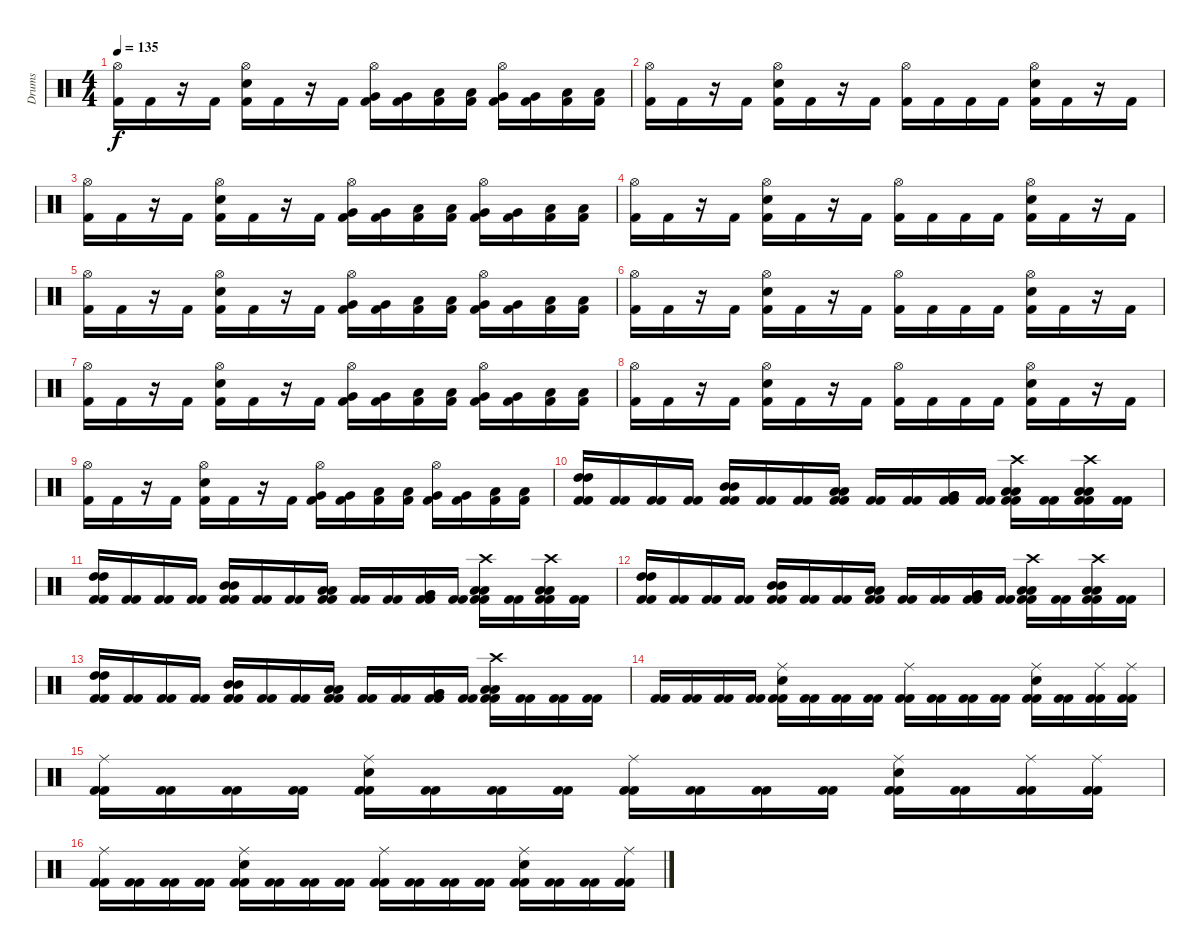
\track ("Drums" "Drums") {instrument percussion}
\staff {score}
\articulation defaults
\ts (4 4)
\tempo 135
\clef neutral
\ks c
("Hi-Hat (open)" "Kick (hit) 2").16{dy f} "Kick (hit) 2".16 r.16 "Kick (hit) 2".16 ("Hi-Hat (open)" "Electric Snare (hit)" "Kick (hit) 2").16 "Kick (hit) 2".16 r.16 "Kick (hit) 2".16 ("Hi-Hat (open)" "Very Low Tom (hit)" "Kick (hit) 2").16 ("Very Low Tom (hit)" "Kick (hit) 2").16 ("Low Floor Tom (hit)" "Kick (hit) 2").16 ("Low Floor Tom (hit)" "Kick (hit) 2").16 ("Hi-Hat (open)" "Very Low Tom (hit)" "Kick (hit) 2").16 ("Very Low Tom (hit)" "Kick (hit) 2").16 ("Low Floor Tom (hit)" "Kick (hit) 2").16 ("Low Floor Tom (hit)" "Kick (hit) 2").16 |
("Hi-Hat (open)" "Kick (hit) 2").16 "Kick (hit) 2".16 r.16 "Kick (hit) 2".16 ("Hi-Hat (open)" "Electric Snare (hit)" "Kick (hit) 2").16 "Kick (hit) 2".16 r.16 "Kick (hit) 2".16 ("Hi-Hat (open)" "Kick (hit) 2").16 "Kick (hit) 2".16 "Kick (hit) 2".16 "Kick (hit) 2".16 ("Hi-Hat (open)" "Electric Snare (hit)" "Kick (hit) 2").16 "Kick (hit) 2".16 r.16 "Kick (hit) 2".16 |
("Hi-Hat (open)" "Kick (hit) 2").16 "Kick (hit) 2".16 r.16 "Kick (hit) 2".16 ("Hi-Hat (open)" "Electric Snare (hit)" "Kick (hit) 2").16 "Kick (hit) 2".16 r.16 "Kick (hit) 2".16 ("Hi-Hat (open)" "Very Low Tom (hit)" "Kick (hit) 2").16 ("Very Low Tom (hit)" "Kick (hit) 2").16 ("Low Floor Tom (hit)" "Kick (hit) 2").16 ("Low Floor Tom (hit)" "Kick (hit) 2").16 ("Hi-Hat (open)" "Very Low Tom (hit)" "Kick (hit) 2").16 ("Very Low Tom (hit)" "Kick (hit) 2").16 ("Low Floor Tom (hit)" "Kick (hit) 2").16 ("Low Floor Tom (hit)" "Kick (hit) 2").16 |
("Hi-Hat (open)" "Kick (hit) 2").16 "Kick (hit) 2".16 r.16 "Kick (hit) 2".16 ("Hi-Hat (open)" "Electric Snare (hit)" "Kick (hit) 2").16 "Kick (hit) 2".16 r.16 "Kick (hit) 2".16 ("Hi-Hat (open)" "Kick (hit) 2").16 "Kick (hit) 2".16 "Kick (hit) 2".16 "Kick (hit) 2".16 ("Hi-Hat (open)" "Electric Snare (hit)" "Kick (hit) 2").16 "Kick (hit) 2".16 r.16 "Kick (hit) 2".16 |
("Hi-Hat (open)" "Kick (hit) 2").16 "Kick (hit) 2".16 r.16 "Kick (hit) 2".16 ("Hi-Hat (open)" "Electric Snare (hit)" "Kick (hit) 2").16 "Kick (hit) 2".16 r.16 "Kick (hit) 2".16 ("Hi-Hat (open)" "Very Low Tom (hit)" "Kick (hit) 2").16 ("Very Low Tom (hit)" "Kick (hit) 2").16 ("Low Floor Tom (hit)" "Kick (hit) 2").16 ("Low Floor Tom (hit)" "Kick (hit) 2").16 ("Hi-Hat (open)" "Very Low Tom (hit)" "Kick (hit) 2").16 ("Very Low Tom (hit)" "Kick (hit) 2").16 ("Low Floor Tom (hit)" "Kick (hit) 2").16 ("Low Floor Tom (hit)" "Kick (hit) 2").16 |
("Hi-Hat (open)" "Kick (hit) 2").16 "Kick (hit) 2".16 r.16 "Kick (hit) 2".16 ("Hi-Hat (open)" "Electric Snare (hit)" "Kick (hit) 2").16 "Kick (hit) 2".16 r.16 "Kick (hit) 2".16 ("Hi-Hat (open)" "Kick (hit) 2").16 "Kick (hit) 2".16 "Kick (hit) 2".16 "Kick (hit) 2".16 ("Hi-Hat (open)" "Electric Snare (hit)" "Kick (hit) 2").16 "Kick (hit) 2".16 r.16 "Kick (hit) 2".16 |
("Hi-Hat (open)" "Kick (hit) 2").16 "Kick (hit) 2".16 r.16 "Kick (hit) 2".16 ("Hi-Hat (open)" "Electric Snare (hit)" "Kick (hit) 2").16 "Kick (hit) 2".16 r.16 "Kick (hit) 2".16 ("Hi-Hat (open)" "Very Low Tom (hit)" "Kick (hit) 2").16 ("Very Low Tom (hit)" "Kick (hit) 2").16 ("Low Floor Tom (hit)" "Kick (hit) 2").16 ("Low Floor Tom (hit)" "Kick (hit) 2").16 ("Hi-Hat (open)" "Very Low Tom (hit)" "Kick (hit) 2").16 ("Very Low Tom (hit)" "Kick (hit) 2").16 ("Low Floor Tom (hit)" "Kick (hit) 2").16 ("Low Floor Tom (hit)" "Kick (hit) 2").16 |
("Hi-Hat (open)" "Kick (hit) 2").16 "Kick (hit) 2".16 r.16 "Kick (hit) 2".16 ("Hi-Hat (open)" "Electric Snare (hit)" "Kick (hit) 2").16 "Kick (hit) 2".16 r.16 "Kick (hit) 2".16 ("Hi-Hat (open)" "Kick (hit) 2").16 "Kick (hit) 2".16 "Kick (hit) 2".16 "Kick (hit) 2".16 ("Hi-Hat (open)" "Electric Snare (hit)" "Kick (hit) 2").16 "Kick (hit) 2".16 r.16 "Kick (hit) 2".16 |
("Hi-Hat (open)" "Kick (hit) 2").16 "Kick (hit) 2".16 r.16 "Kick (hit) 2".16 ("Hi-Hat (open)" "Electric Snare (hit)" "Kick (hit) 2").16 "Kick (hit) 2".16 r.16 "Kick (hit) 2".16 ("Hi-Hat (open)" "Very Low Tom (hit)" "Kick (hit) 2").16 ("Very Low Tom (hit)" "Kick (hit) 2").16 ("Low Floor Tom (hit)" "Kick (hit) 2").16 ("Low Floor Tom (hit)" "Kick (hit) 2").16 ("Hi-Hat (open)" "Very Low Tom (hit)" "Kick (hit) 2").16 ("Very Low Tom (hit)" "Kick (hit) 2").16 ("Low Floor Tom (hit)" "Kick (hit) 2").16 ("Low Floor Tom (hit)" "Kick (hit) 2").16 |
("High Tom (hit)" "High Tom (hit)" "Kick (hit) 2" "Kick (hit) 2").16 ("Kick (hit) 2" "Kick (hit) 2").16 ("Kick (hit) 2" "Kick (hit) 2").16 ("Kick (hit) 2" "Kick (hit) 2").16 ("Mid Tom (hit)" "Mid Tom (hit)" "Kick (hit) 2" "Kick (hit) 2").16 ("Kick (hit) 2" "Kick (hit) 2").16 ("Kick (hit) 2" "Kick (hit) 2").16 ("Low Tom (hit)" "Low Tom (hit)" "Kick (hit) 2" "Kick (hit) 2").16 ("Kick (hit) 2" "Kick (hit) 2").16 ("Kick (hit) 2" "Kick (hit) 2").16 ("Very Low Tom (hit)" "Very Low Tom (hit)" "Kick (hit) 2" "Kick (hit) 2").16 ("Kick (hit) 2" "Kick (hit) 2").16 ("Crash high (hit)" "Low Floor Tom (hit)" "Low Floor Tom (hit)" "Kick (hit) 2" "Kick (hit) 2").16 ("Kick (hit) 2" "Kick (hit) 2").16 ("Crash high (hit)" "Low Floor Tom (hit)" "Low Floor Tom (hit)" "Kick (hit) 2" "Kick (hit) 2").16 ("Kick (hit) 2" "Kick (hit) 2").16 |
("High Tom (hit)" "High Tom (hit)" "Kick (hit) 2" "Kick (hit) 2").16 ("Kick (hit) 2" "Kick (hit) 2").16 ("Kick (hit) 2" "Kick (hit) 2").16 ("Kick (hit) 2" "Kick (hit) 2").16 ("Mid Tom (hit)" "Mid Tom (hit)" "Kick (hit) 2" "Kick (hit) 2").16 ("Kick (hit) 2" "Kick (hit) 2").16 ("Kick (hit) 2" "Kick (hit) 2").16 ("Low Tom (hit)" "Low Tom (hit)" "Kick (hit) 2" "Kick (hit) 2").16 ("Kick (hit) 2" "Kick (hit) 2").16 ("Kick (hit) 2" "Kick (hit) 2").16 ("Very Low Tom (hit)" "Very Low Tom (hit)" "Kick (hit) 2" "Kick (hit) 2").16 ("Kick (hit) 2" "Kick (hit) 2").16 ("Crash high (hit)" "Low Floor Tom (hit)" "Low Floor Tom (hit)" "Kick (hit) 2" "Kick (hit) 2").16 ("Kick (hit) 2" "Kick (hit) 2").16 ("Crash high (hit)" "Low Floor Tom (hit)" "Low Floor Tom (hit)" "Kick (hit) 2" "Kick (hit) 2").16 ("Kick (hit) 2" "Kick (hit) 2").16 |
("High Tom (hit)" "High Tom (hit)" "Kick (hit) 2" "Kick (hit) 2").16 ("Kick (hit) 2" "Kick (hit) 2").16 ("Kick (hit) 2" "Kick (hit) 2").16 ("Kick (hit) 2" "Kick (hit) 2").16 ("Mid Tom (hit)" "Mid Tom (hit)" "Kick (hit) 2" "Kick (hit) 2").16 ("Kick (hit) 2" "Kick (hit) 2").16 ("Kick (hit) 2" "Kick (hit) 2").16 ("Low Tom (hit)" "Low Tom (hit)" "Kick (hit) 2" "Kick (hit) 2").16 ("Kick (hit) 2" "Kick (hit) 2").16 ("Kick (hit) 2" "Kick (hit) 2").16 ("Very Low Tom (hit)" "Very Low Tom (hit)" "Kick (hit) 2" "Kick (hit) 2").16 ("Kick (hit) 2" "Kick (hit) 2").16 ("Crash high (hit)" "Low Floor Tom (hit)" "Low Floor Tom (hit)" "Kick (hit) 2" "Kick (hit) 2").16 ("Kick (hit) 2" "Kick (hit) 2").16 ("Crash high (hit)" "Low Floor Tom (hit)" "Low Floor Tom (hit)" "Kick (hit) 2" "Kick (hit) 2").16 ("Kick (hit) 2" "Kick (hit) 2").16 |
("High Tom (hit)" "High Tom (hit)" "Kick (hit) 2" "Kick (hit) 2").16 ("Kick (hit) 2" "Kick (hit) 2").16 ("Kick (hit) 2" "Kick (hit) 2").16 ("Kick (hit) 2" "Kick (hit) 2").16 ("Mid Tom (hit)" "Mid Tom (hit)" "Kick (hit) 2" "Kick (hit) 2").16 ("Kick (hit) 2" "Kick (hit) 2").16 ("Kick (hit) 2" "Kick (hit) 2").16 ("Low Tom (hit)" "Low Tom (hit)" "Kick (hit) 2" "Kick (hit) 2").16 ("Kick (hit) 2" "Kick (hit) 2").16 ("Kick (hit) 2" "Kick (hit) 2").16 ("Very Low Tom (hit)" "Very Low Tom (hit)" "Kick (hit) 2" "Kick (hit) 2").16 ("Kick (hit) 2" "Kick (hit) 2").16 ("Crash high (hit)" "Low Floor Tom (hit)" "Low Floor Tom (hit)" "Kick (hit) 2" "Kick (hit) 2").16 ("Kick (hit) 2" "Kick (hit) 2").16 ("Kick (hit) 2" "Kick (hit) 2").16 ("Kick (hit) 2" "Kick (hit) 2").16 |
("Kick (hit) 2" "Kick (hit) 2").16 ("Kick (hit) 2" "Kick (hit) 2").16 ("Kick (hit) 2" "Kick (hit) 2").16 ("Kick (hit) 2" "Kick (hit) 2").16 ("Ride (middle)" "Electric Snare (hit)" "Kick (hit) 2" "Kick (hit) 2").16 ("Kick (hit) 2" "Kick (hit) 2").16 ("Kick (hit) 2" "Kick (hit) 2").16 ("Kick (hit) 2" "Kick (hit) 2").16 ("Ride (middle)" "Kick (hit) 2" "Kick (hit) 2").16 ("Kick (hit) 2" "Kick (hit) 2").16 ("Kick (hit) 2" "Kick (hit) 2").16 ("Kick (hit) 2" "Kick (hit) 2").16 ("Ride (middle)" "Electric Snare (hit)" "Kick (hit) 2" "Kick (hit) 2").16 ("Kick (hit) 2" "Kick (hit) 2").16 ("Ride (middle)" "Kick (hit) 2" "Kick (hit) 2").16 ("Ride (middle)" "Kick (hit) 2" "Kick (hit) 2").16 |
("Ride (middle)" "Kick (hit) 2" "Kick (hit) 2").16 ("Kick (hit) 2" "Kick (hit) 2").16 ("Kick (hit) 2" "Kick (hit) 2").16 ("Kick (hit) 2" "Kick (hit) 2").16 ("Ride (middle)" "Electric Snare (hit)" "Kick (hit) 2" "Kick (hit) 2").16 ("Kick (hit) 2" "Kick (hit) 2").16 ("Kick (hit) 2" "Kick (hit) 2").16 ("Kick (hit) 2" "Kick (hit) 2").16 ("Ride (middle)" "Kick (hit) 2" "Kick (hit) 2").16 ("Kick (hit) 2" "Kick (hit) 2").16 ("Kick (hit) 2" "Kick (hit) 2").16 ("Kick (hit) 2" "Kick (hit) 2").16 ("Ride (middle)" "Electric Snare (hit)" "Kick (hit) 2" "Kick (hit) 2").16 ("Kick (hit) 2" "Kick (hit) 2").16 ("Ride (middle)" "Kick (hit) 2" "Kick (hit) 2").16 ("Ride (middle)" "Kick (hit) 2" "Kick (hit) 2").16 |
("Ride (middle)" "Kick (hit) 2" "Kick (hit) 2").16 ("Kick (hit) 2" "Kick (hit) 2").16 ("Kick (hit) 2" "Kick (hit) 2").16 ("Kick (hit) 2" "Kick (hit) 2").16 ("Ride (middle)" "Electric Snare (hit)" "Kick (hit) 2" "Kick (hit) 2").16 ("Kick (hit) 2" "Kick (hit) 2").16 ("Kick (hit) 2" "Kick (hit) 2").16 ("Kick (hit) 2" "Kick (hit) 2").16 ("Ride (middle)" "Kick (hit) 2" "Kick (hit) 2").16 ("Kick (hit) 2" "Kick (hit) 2").16 ("Kick (hit) 2" "Kick (hit) 2").16 ("Kick (hit) 2" "Kick (hit) 2").16 ("Ride (middle)" "Electric Snare (hit)" "Kick (hit) 2" "Kick (hit) 2").16 ("Kick (hit) 2" "Kick (hit) 2").16 ("Kick (hit) 2" "Kick (hit) 2").16 ("Ride (middle)" "Kick (hit) 2" "Kick (hit) 2").16
